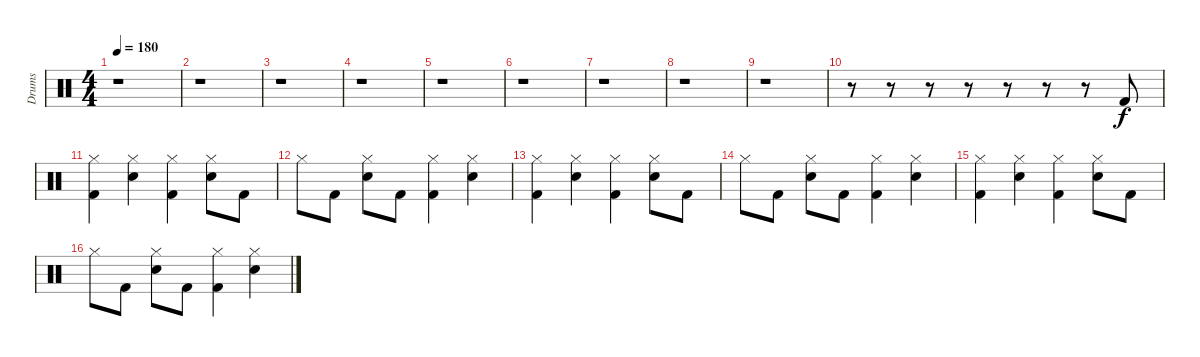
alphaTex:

\track ("Drums" "Drums") {instrument percussion}
\staff {score}
\articulation defaults
\ts (4 4)
\tempo 180
\clef neutral
\ks c
r.1{dy f} |
r.1 |
r.1 |
r.1 |
r.1 |
r.1 |
r.1 |
r.1 |
r.1 |
r.8 r.8 r.8 r.8 r.8 r.8 r.8 "Kick (hit) 2".8 |
("Hi-Hat (closed)" "Kick (hit) 2").4 ("Hi-Hat (closed)" "Snare (hit) 2").4 ("Hi-Hat (closed)" "Kick (hit) 2").4 ("Hi-Hat (closed)" "Snare (hit) 2").8 "Kick (hit) 2".8 |
"Hi-Hat (closed)".8 "Kick (hit) 2".8 ("Hi-Hat (closed)" "Snare (hit) 2").8 "Kick (hit) 2".8 ("Hi-Hat (closed)" "Kick (hit) 2").4 ("Hi-Hat (closed)" "Snare (hit) 2").4 |
("Hi-Hat (closed)" "Kick (hit) 2").4 ("Hi-Hat (closed)" "Snare (hit) 2").4 ("Hi-Hat (closed)" "Kick (hit) 2").4 ("Hi-Hat (closed)" "Snare (hit) 2").8 "Kick (hit) 2".8 |
"Hi-Hat (closed)".8 "Kick (hit) 2".8 ("Hi-Hat (closed)" "Snare (hit) 2").8 "Kick (hit) 2".8 ("Hi-Hat (closed)" "Kick (hit) 2").4 ("Hi-Hat (closed)" "Snare (hit) 2").4 |
("Hi-Hat (closed)" "Kick (hit) 2").4 ("Hi-Hat (closed)" "Snare (hit) 2").4 ("Hi-Hat (closed)" "Kick (hit) 2").4 ("Hi-Hat (closed)" "Snare (hit) 2").8 "Kick (hit) 2".8 |
"Hi-Hat (closed)".8 "Kick (hit) 2".8 ("Hi-Hat (closed)" "Snare (hit) 2").8 "Kick (hit) 2".8 ("Hi-Hat (closed)" "Kick (hit) 2").4 ("Hi-Hat (closed)" "Snare (hit) 2").4
